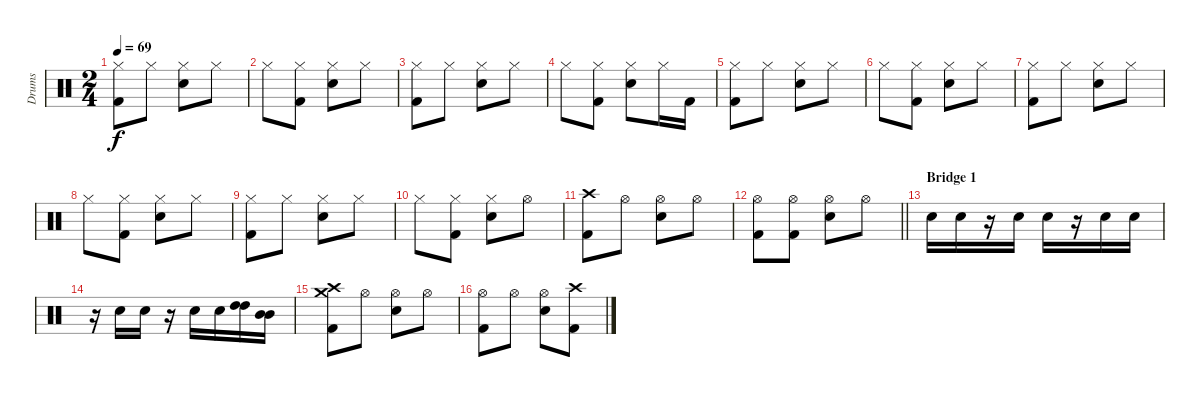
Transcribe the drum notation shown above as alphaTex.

\track ("Drums" "Drums") {instrument percussion}
\staff {score}
\articulation defaults
\ts (2 4)
\tempo 69
\clef neutral
\ks c
("Kick (hit) 2" "Hi-Hat (closed)").8{dy f} "Hi-Hat (closed)".8 ("Electric Snare (hit)" "Hi-Hat (closed)").8 "Hi-Hat (closed)".8 |
"Hi-Hat (closed)".8 ("Kick (hit) 2" "Hi-Hat (closed)").8 ("Electric Snare (hit)" "Hi-Hat (closed)").8 "Hi-Hat (closed)".8 |
("Kick (hit) 2" "Hi-Hat (closed)").8 "Hi-Hat (closed)".8 ("Electric Snare (hit)" "Hi-Hat (closed)").8 "Hi-Hat (closed)".8 |
"Hi-Hat (closed)".8 ("Kick (hit) 2" "Hi-Hat (closed)").8 ("Electric Snare (hit)" "Hi-Hat (closed)").8 "Hi-Hat (closed)".16 "Kick (hit) 2".16 |
("Kick (hit) 2" "Hi-Hat (closed)").8 "Hi-Hat (closed)".8 ("Electric Snare (hit)" "Hi-Hat (closed)").8 "Hi-Hat (closed)".8 |
"Hi-Hat (closed)".8 ("Kick (hit) 2" "Hi-Hat (closed)").8 ("Electric Snare (hit)" "Hi-Hat (closed)").8 "Hi-Hat (closed)".8 |
("Kick (hit) 2" "Hi-Hat (closed)").8 "Hi-Hat (closed)".8 ("Electric Snare (hit)" "Hi-Hat (closed)").8 "Hi-Hat (closed)".8 |
"Hi-Hat (closed)".8 ("Kick (hit) 2" "Hi-Hat (closed)").8 ("Electric Snare (hit)" "Hi-Hat (closed)").8 "Hi-Hat (closed)".8 |
("Kick (hit) 2" "Hi-Hat (closed)").8 "Hi-Hat (closed)".8 ("Electric Snare (hit)" "Hi-Hat (closed)").8 "Hi-Hat (closed)".8 |
"Hi-Hat (closed)".8 ("Kick (hit) 2" "Hi-Hat (closed)").8 ("Electric Snare (hit)" "Hi-Hat (closed)").8 "Hi-Hat (open)".8 |
("Kick (hit) 2" "Crash high (hit)").8 "Hi-Hat (open)".8 ("Electric Snare (hit)" "Hi-Hat (open)").8 "Hi-Hat (open)".8 |
\barLineRight lightlight
("Kick (hit) 2" "Hi-Hat (open)").8 ("Kick (hit) 2" "Hi-Hat (open)").8 ("Electric Snare (hit)" "Hi-Hat (open)").8 "Hi-Hat (open)".8 |
\section ("" "Bridge 1")
"Electric Snare (hit)".16 "Electric Snare (hit)".16 r.16 "Electric Snare (hit)".16 "Electric Snare (hit)".16 r.16 "Electric Snare (hit)".16 "Electric Snare (hit)".16 |
r.16 "Electric Snare (hit)".16 "Electric Snare (hit)".16 r.16 "Electric Snare (hit)".16 "Electric Snare (hit)".16 ("High Tom (hit)" "High Tom (hit)").16 ("Mid Tom (hit)" "Mid Tom (hit)").16 |
("Kick (hit) 2" "Crash high (hit)" "Crash medium (hit)").8 "Hi-Hat (open)".8 ("Electric Snare (hit)" "Hi-Hat (open)").8 "Hi-Hat (open)".8 |
("Kick (hit) 2" "Hi-Hat (open)").8 "Hi-Hat (open)".8 ("Electric Snare (hit)" "Hi-Hat (open)").8 ("Kick (hit) 2" "Crash high (hit)").8
